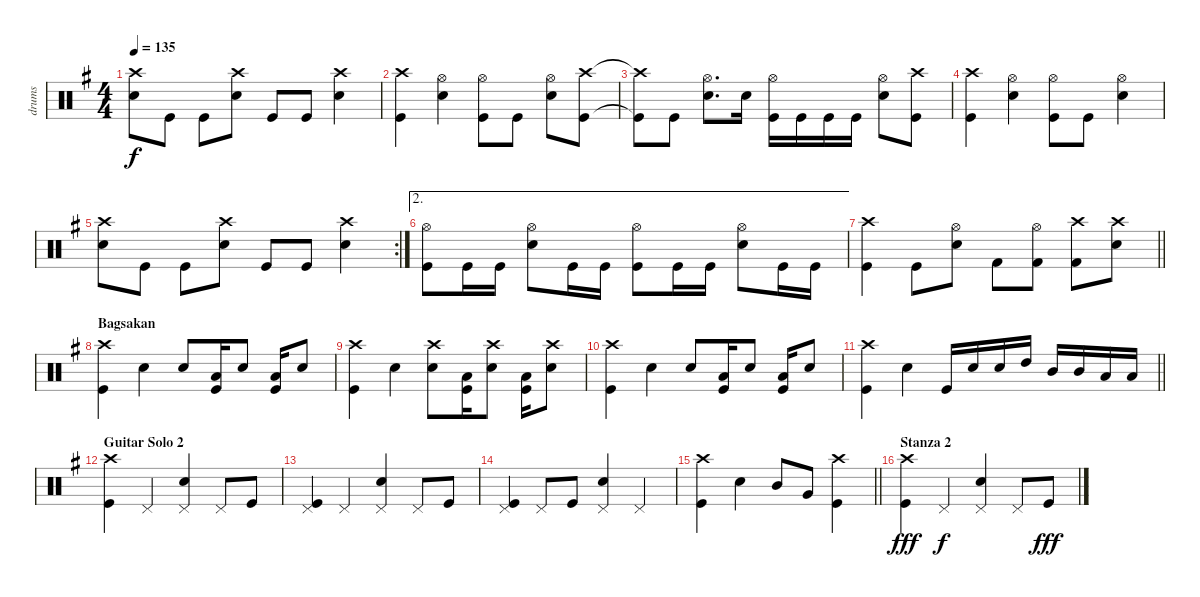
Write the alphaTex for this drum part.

\track ("drums" "drums") {instrument percussion}
\staff {score}
\articulation defaults
\ts (4 4)
\tempo 135
\clef neutral
\ks eminor
("Crash high (hit)" "Snare (hit) 2").8{dy f} "Kick (hit)".8 "Kick (hit)".8 ("Crash high (hit)" "Snare (hit) 2").8 "Kick (hit)".8 "Kick (hit)".8 ("Crash high (hit)" "Snare (hit) 2").4 |
("Crash high (hit)" "Kick (hit)").4 ("Hi-Hat (open)" "Snare (hit) 2").4 ("Hi-Hat (open)" "Kick (hit)").8 "Kick (hit)".8 ("Hi-Hat (open)" "Snare (hit) 2").8 ("Crash high (hit)" "Kick (hit)").8 |
("Crash high (hit)"{t} "Kick (hit)"{t}).8 "Kick (hit)".8 ("Hi-Hat (open)" "Snare (hit) 2").8{d} "Snare (hit) 2".16 ("Hi-Hat (open)" "Kick (hit)").16 "Kick (hit)".16 "Kick (hit)".16 "Kick (hit)".16 ("Hi-Hat (open)" "Snare (hit) 2").8 ("Crash high (hit)" "Kick (hit)").8 |
("Crash high (hit)" "Kick (hit)").4 ("Hi-Hat (open)" "Snare (hit) 2").4 ("Hi-Hat (open)" "Kick (hit)").8 "Kick (hit)".8 ("Hi-Hat (open)" "Snare (hit) 2").4 |
\rc 2
("Crash high (hit)" "Snare (hit) 2").8 "Kick (hit)".8 "Kick (hit)".8 ("Crash high (hit)" "Snare (hit) 2").8 "Kick (hit)".8 "Kick (hit)".8 ("Crash high (hit)" "Snare (hit) 2").4 |
\ae 2
("Hi-Hat (open)" "Kick (hit)").8 "Kick (hit)".16 "Kick (hit)".16 ("Hi-Hat (open)" "Snare (hit) 2").8 "Kick (hit)".16 "Kick (hit)".16 ("Hi-Hat (open)" "Kick (hit)").8 "Kick (hit)".16 "Kick (hit)".16 ("Hi-Hat (open)" "Snare (hit) 2").8 "Kick (hit)".16 "Kick (hit)".16 |
\barLineRight lightlight
("Crash high (hit)" "Kick (hit)").4 "Kick (hit)".8 ("Hi-Hat (open)" "Snare (hit) 2").8 "Kick (hit) 2".8 ("Hi-Hat (open)" "Kick (hit) 2").8 ("Crash high (hit)" "Kick (hit) 2").8 ("Crash high (hit)" "Snare (hit) 2").8 |
\section ("" "Bagsakan")
("Crash high (hit)" "Kick (hit)").4 "Snare (hit) 2".4 "Snare (hit) 2".8 ("Low Floor Tom (hit)" "Kick (hit)").16 "Snare (hit) 2".8 ("Low Floor Tom (hit)" "Kick (hit)").16 "Snare (hit) 2".8 |
("Crash high (hit)" "Kick (hit)").4 "Snare (hit) 2".4 ("Crash high (hit)" "Snare (hit) 2").8 ("Low Floor Tom (hit)" "Kick (hit)").16 ("Crash high (hit)" "Snare (hit) 2").8 ("Low Floor Tom (hit)" "Kick (hit)").16 ("Crash high (hit)" "Snare (hit) 2").8 |
("Crash high (hit)" "Kick (hit)").4 "Snare (hit) 2".4 "Snare (hit) 2".8 ("Low Floor Tom (hit)" "Kick (hit)").16 "Snare (hit) 2".8 ("Low Floor Tom (hit)" "Kick (hit)").16 "Snare (hit) 2".8 |
\barLineRight lightlight
("Crash high (hit)" "Kick (hit)").4 "Snare (hit) 2".4 "Kick (hit)".16 "Snare (hit) 2".16 "Snare (hit) 2".16 "High Tom (hit)".16 "Mid Tom (hit)".16 "Mid Tom (hit)".16 "Low Floor Tom (hit)".16 "Low Floor Tom (hit)".16 |
\section ("" "Guitar Solo 2")
("Crash high (hit)" "Kick (hit)").4 "Pedal Hi-Hat (hit)".4 ("Pedal Hi-Hat (hit)" "Snare (hit) 2").4 "Pedal Hi-Hat (hit)".8 "Kick (hit)".8 |
("Pedal Hi-Hat (hit)" "Kick (hit)").4 "Pedal Hi-Hat (hit)".4 ("Pedal Hi-Hat (hit)" "Snare (hit) 2").4 "Pedal Hi-Hat (hit)".8 "Kick (hit)".8 |
("Pedal Hi-Hat (hit)" "Kick (hit)").4 "Pedal Hi-Hat (hit)".8 "Kick (hit)".8 ("Pedal Hi-Hat (hit)" "Snare (hit) 2").4 "Pedal Hi-Hat (hit)".4 |
\barLineRight lightlight
("Crash high (hit)" "Kick (hit)").4 "Snare (hit) 2".4 "Mid Tom (hit)".8 "Very Low Tom (hit)".8 ("Crash high (hit)" "Kick (hit)").4 |
\section ("" "Stanza 2")
("Crash high (hit)" "Kick (hit)").4{dy fff} "Pedal Hi-Hat (hit)".4{dy f} ("Pedal Hi-Hat (hit)" "Snare (hit) 2").4 "Pedal Hi-Hat (hit)".8 "Kick (hit)".8{dy fff}
